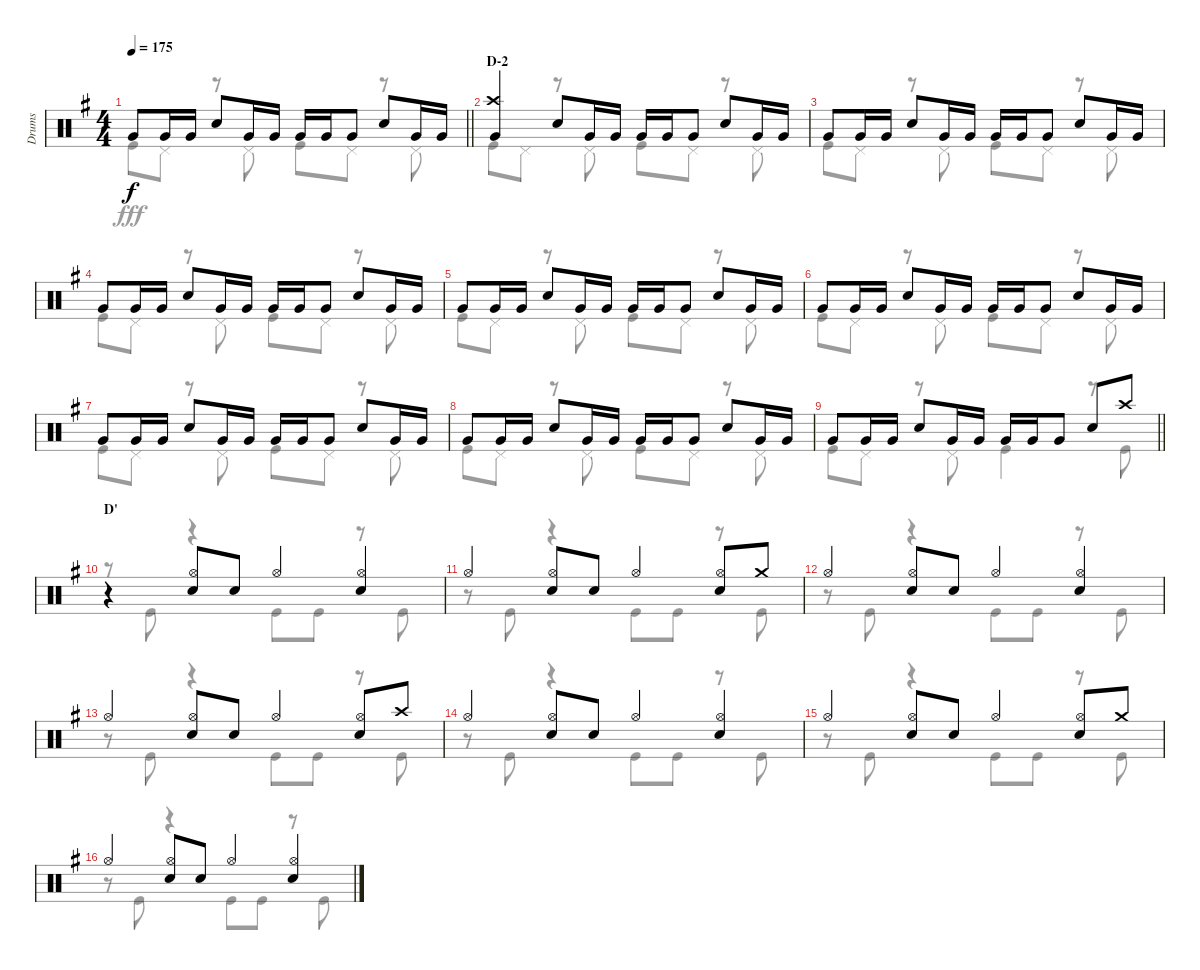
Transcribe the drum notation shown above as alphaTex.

\track ("Drums" "Drums") {instrument percussion}
\staff {score}
\articulation defaults
\voice
\ts (4 4)
\tempo 175
\clef neutral
\barLineRight lightlight
\ks g "Very Low Tom (hit)".8{dy f} "Very Low Tom (hit)".16 "Very Low Tom (hit)".16 "Snare (hit) 2".8 "Very Low Tom (hit)".16 "Very Low Tom (hit)".16 "Very Low Tom (hit)".16 "Very Low Tom (hit)".16 "Very Low Tom (hit)".8 "Snare (hit) 2".8 "Very Low Tom (hit)".16 "Very Low Tom (hit)".16
|
\section ("" "D-2")
("Crash high (hit)" "Very Low Tom (hit)").4 "Snare (hit) 2".8 "Very Low Tom (hit)".16 "Very Low Tom (hit)".16 "Very Low Tom (hit)".16 "Very Low Tom (hit)".16 "Very Low Tom (hit)".8 "Snare (hit) 2".8 "Very Low Tom (hit)".16 "Very Low Tom (hit)".16 |
"Very Low Tom (hit)".8 "Very Low Tom (hit)".16 "Very Low Tom (hit)".16 "Snare (hit) 2".8 "Very Low Tom (hit)".16 "Very Low Tom (hit)".16 "Very Low Tom (hit)".16 "Very Low Tom (hit)".16 "Very Low Tom (hit)".8 "Snare (hit) 2".8 "Very Low Tom (hit)".16 "Very Low Tom (hit)".16 |
"Very Low Tom (hit)".8 "Very Low Tom (hit)".16 "Very Low Tom (hit)".16 "Snare (hit) 2".8 "Very Low Tom (hit)".16 "Very Low Tom (hit)".16 "Very Low Tom (hit)".16 "Very Low Tom (hit)".16 "Very Low Tom (hit)".8 "Snare (hit) 2".8 "Very Low Tom (hit)".16 "Very Low Tom (hit)".16 |
"Very Low Tom (hit)".8 "Very Low Tom (hit)".16 "Very Low Tom (hit)".16 "Snare (hit) 2".8 "Very Low Tom (hit)".16 "Very Low Tom (hit)".16 "Very Low Tom (hit)".16 "Very Low Tom (hit)".16 "Very Low Tom (hit)".8 "Snare (hit) 2".8 "Very Low Tom (hit)".16 "Very Low Tom (hit)".16 |
"Very Low Tom (hit)".8 "Very Low Tom (hit)".16 "Very Low Tom (hit)".16 "Snare (hit) 2".8 "Very Low Tom (hit)".16 "Very Low Tom (hit)".16 "Very Low Tom (hit)".16 "Very Low Tom (hit)".16 "Very Low Tom (hit)".8 "Snare (hit) 2".8 "Very Low Tom (hit)".16 "Very Low Tom (hit)".16 |
"Very Low Tom (hit)".8 "Very Low Tom (hit)".16 "Very Low Tom (hit)".16 "Snare (hit) 2".8 "Very Low Tom (hit)".16 "Very Low Tom (hit)".16 "Very Low Tom (hit)".16 "Very Low Tom (hit)".16 "Very Low Tom (hit)".8 "Snare (hit) 2".8 "Very Low Tom (hit)".16 "Very Low Tom (hit)".16 |
"Very Low Tom (hit)".8 "Very Low Tom (hit)".16 "Very Low Tom (hit)".16 "Snare (hit) 2".8 "Very Low Tom (hit)".16 "Very Low Tom (hit)".16 "Very Low Tom (hit)".16 "Very Low Tom (hit)".16 "Very Low Tom (hit)".8 "Snare (hit) 2".8 "Very Low Tom (hit)".16 "Very Low Tom (hit)".16 |
\barLineRight lightlight "Very Low Tom (hit)".8 "Very Low Tom (hit)".16 "Very Low Tom (hit)".16 "Snare (hit) 2".8 "Very Low Tom (hit)".16 "Very Low Tom (hit)".16 "Very Low Tom (hit)".16 "Very Low Tom (hit)".16 "Very Low Tom (hit)".8 "Snare (hit) 2".8 "Crash high (hit)".8
|
\section ("" "D'")
r.4 ("Hi-Hat (open)" "Snare (hit) 2").8 "Snare (hit) 2".8 "Hi-Hat (open)".4 ("Hi-Hat (open)" "Snare (hit) 2").4 |
"Hi-Hat (open)".4 ("Hi-Hat (open)" "Snare (hit) 2").8 "Snare (hit) 2".8 "Hi-Hat (open)".4 ("Hi-Hat (open)" "Snare (hit) 2").8 "Crash medium (hit)".8 |
"Hi-Hat (open)".4 ("Hi-Hat (open)" "Snare (hit) 2").8 "Snare (hit) 2".8 "Hi-Hat (open)".4 ("Hi-Hat (open)" "Snare (hit) 2").4 |
"Hi-Hat (open)".4 ("Hi-Hat (open)" "Snare (hit) 2").8 "Snare (hit) 2".8 "Hi-Hat (open)".4 ("Hi-Hat (open)" "Snare (hit) 2").8 "Crash high (hit)".8 |
"Hi-Hat (open)".4 ("Hi-Hat (open)" "Snare (hit) 2").8 "Snare (hit) 2".8 "Hi-Hat (open)".4 ("Hi-Hat (open)" "Snare (hit) 2").4 |
"Hi-Hat (open)".4 ("Hi-Hat (open)" "Snare (hit) 2").8 "Snare (hit) 2".8 "Hi-Hat (open)".4 ("Hi-Hat (open)" "Snare (hit) 2").8 "Crash medium (hit)".8 |
"Hi-Hat (open)".4 ("Hi-Hat (open)" "Snare (hit) 2").8 "Snare (hit) 2".8 "Hi-Hat (open)".4 ("Hi-Hat (open)" "Snare (hit) 2").4
\voice
\clef neutral
\ottava regular
\simile none
\barLineRight lightlight
\ks g "Kick (hit)".8{dy fff} "Pedal Hi-Hat (hit)".8
r.8 "Pedal Hi-Hat (hit)".8 "Kick (hit)".8 "Pedal Hi-Hat (hit)".8 r.8 "Pedal Hi-Hat (hit)".8 |
"Kick (hit)".8 "Pedal Hi-Hat (hit)".8 r.8 "Pedal Hi-Hat (hit)".8 "Kick (hit)".8 "Pedal Hi-Hat (hit)".8 r.8 "Pedal Hi-Hat (hit)".8 |
"Kick (hit)".8 "Pedal Hi-Hat (hit)".8 r.8 "Pedal Hi-Hat (hit)".8 "Kick (hit)".8 "Pedal Hi-Hat (hit)".8 r.8 "Pedal Hi-Hat (hit)".8 |
"Kick (hit)".8 "Pedal Hi-Hat (hit)".8 r.8 "Pedal Hi-Hat (hit)".8 "Kick (hit)".8 "Pedal Hi-Hat (hit)".8 r.8 "Pedal Hi-Hat (hit)".8 |
"Kick (hit)".8 "Pedal Hi-Hat (hit)".8 r.8 "Pedal Hi-Hat (hit)".8 "Kick (hit)".8 "Pedal Hi-Hat (hit)".8 r.8 "Pedal Hi-Hat (hit)".8 |
"Kick (hit)".8 "Pedal Hi-Hat (hit)".8 r.8 "Pedal Hi-Hat (hit)".8 "Kick (hit)".8 "Pedal Hi-Hat (hit)".8 r.8 "Pedal Hi-Hat (hit)".8 |
"Kick (hit)".8 "Pedal Hi-Hat (hit)".8 r.8 "Pedal Hi-Hat (hit)".8 "Kick (hit)".8 "Pedal Hi-Hat (hit)".8 r.8 "Pedal Hi-Hat (hit)".8 |
"Kick (hit)".8 "Pedal Hi-Hat (hit)".8 r.8 "Pedal Hi-Hat (hit)".8 "Kick (hit)".8 "Pedal Hi-Hat (hit)".8 r.8 "Pedal Hi-Hat (hit)".8 |
\barLineRight lightlight "Kick (hit)".8 "Pedal Hi-Hat (hit)".8
r.8 "Pedal Hi-Hat (hit)".8 "Kick (hit)".4 r.8 "Kick (hit)".8 |
r.8 "Kick (hit)".8 r.4 "Kick (hit)".8 "Kick (hit)".8 r.8 "Kick (hit)".8 |
r.8 "Kick (hit)".8 r.4 "Kick (hit)".8 "Kick (hit)".8 r.8 "Kick (hit)".8 |
r.8 "Kick (hit)".8 r.4 "Kick (hit)".8 "Kick (hit)".8 r.8 "Kick (hit)".8 |
r.8 "Kick (hit)".8 r.4 "Kick (hit)".8 "Kick (hit)".8 r.8 "Kick (hit)".8 |
r.8 "Kick (hit)".8 r.4 "Kick (hit)".8 "Kick (hit)".8 r.8 "Kick (hit)".8 |
r.8 "Kick (hit)".8 r.4 "Kick (hit)".8 "Kick (hit)".8 r.8 "Kick (hit)".8 |
r.8 "Kick (hit)".8 r.4 "Kick (hit)".8 "Kick (hit)".8 r.8 "Kick (hit)".8
